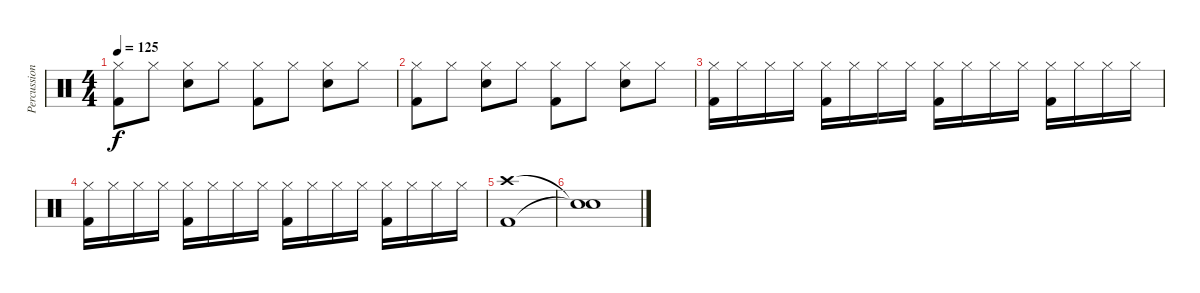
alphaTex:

\track ("Percussion" "Percussion") {instrument percussion}
\staff {score}
\articulation defaults
\ts (4 4)
\tempo 125
\clef neutral
\ks c
("Kick (hit) 2" "Hi-Hat (closed)").8{dy f} "Hi-Hat (closed)".8 ("Snare (hit) 2" "Hi-Hat (closed)").8 "Hi-Hat (closed)".8 ("Kick (hit) 2" "Hi-Hat (closed)").8 "Hi-Hat (closed)".8 ("Snare (hit) 2" "Hi-Hat (closed)").8 "Hi-Hat (closed)".8 |
("Kick (hit) 2" "Hi-Hat (closed)").8 "Hi-Hat (closed)".8 ("Snare (hit) 2" "Hi-Hat (closed)").8 "Hi-Hat (closed)".8 ("Kick (hit) 2" "Hi-Hat (closed)").8 "Hi-Hat (closed)".8 ("Snare (hit) 2" "Hi-Hat (closed)").8 "Hi-Hat (closed)".8 |
("Kick (hit) 2" "Hi-Hat (closed)").16 "Hi-Hat (closed)".16 "Hi-Hat (closed)".16 "Hi-Hat (closed)".16 ("Kick (hit) 2" "Hi-Hat (closed)").16 "Hi-Hat (closed)".16 "Hi-Hat (closed)".16 "Hi-Hat (closed)".16 ("Kick (hit) 2" "Hi-Hat (closed)").16 "Hi-Hat (closed)".16 "Hi-Hat (closed)".16 "Hi-Hat (closed)".16 ("Kick (hit) 2" "Hi-Hat (closed)").16 "Hi-Hat (closed)".16 "Hi-Hat (closed)".16 "Hi-Hat (closed)".16 |
("Kick (hit) 2" "Hi-Hat (closed)").16 "Hi-Hat (closed)".16 "Hi-Hat (closed)".16 "Hi-Hat (closed)".16 ("Kick (hit) 2" "Hi-Hat (closed)").16 "Hi-Hat (closed)".16 "Hi-Hat (closed)".16 "Hi-Hat (closed)".16 ("Kick (hit) 2" "Hi-Hat (closed)").16 "Hi-Hat (closed)".16 "Hi-Hat (closed)".16 "Hi-Hat (closed)".16 ("Kick (hit) 2" "Hi-Hat (closed)").16 "Hi-Hat (closed)".16 "Hi-Hat (closed)".16 "Hi-Hat (closed)".16 |
("Kick (hit) 2" "Crash high (hit)").1 |
("Snare (hit)"{t} "Snare (hit)"{t}).1
